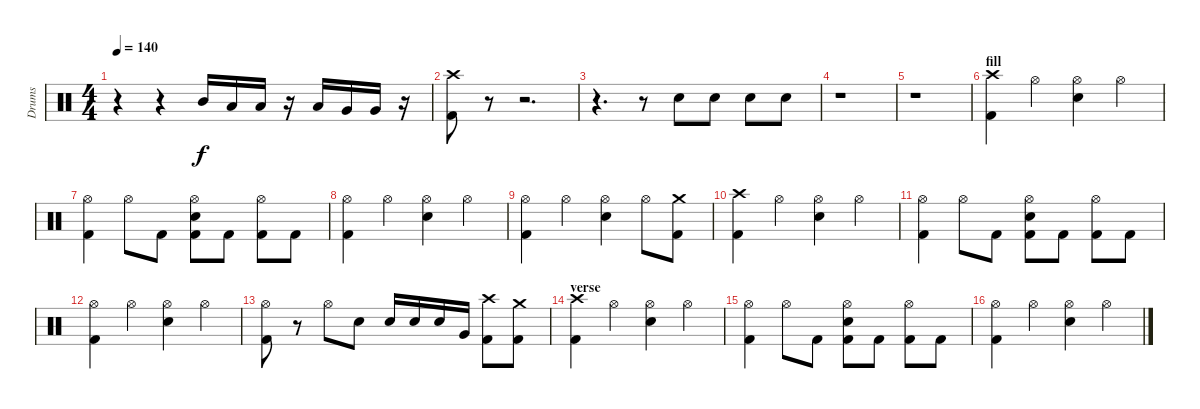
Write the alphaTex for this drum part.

\track ("Drums" "Drums") {instrument percussion}
\staff {score}
\articulation defaults
\ts (4 4)
\tempo 140
\clef neutral
\ks c
r.4{dy f} r.4 "Mid Tom (hit)".16 "Low Tom (hit)".16 "Low Tom (hit)".16 r.16 "Low Tom (hit)".16 "Very Low Tom (hit)".16 "Very Low Tom (hit)".16 r.16 |
("Crash high (hit)" "Kick (hit) 2").8 r.8 r.2{d} |
r.4{d} r.8 "Snare (hit) 2".8 "Snare (hit) 2".8 "Snare (hit) 2".8 "Snare (hit) 2".8 |
r.1 |
r.1 |
\section ("" "fill")
("Crash high (hit)" "Kick (hit) 2").4 "Hi-Hat (open)".4 ("Hi-Hat (open)" "Snare (hit) 2").4 "Hi-Hat (open)".4 |
("Hi-Hat (open)" "Kick (hit) 2").4 "Hi-Hat (open)".8 "Kick (hit) 2".8 ("Hi-Hat (open)" "Snare (hit) 2" "Kick (hit) 2").8 "Kick (hit) 2".8 ("Hi-Hat (open)" "Kick (hit) 2").8 "Kick (hit) 2".8 |
("Hi-Hat (open)" "Kick (hit) 2").4 "Hi-Hat (open)".4 ("Hi-Hat (open)" "Snare (hit) 2").4 "Hi-Hat (open)".4 |
("Hi-Hat (open)" "Kick (hit) 2").4 "Hi-Hat (open)".4 ("Hi-Hat (open)" "Snare (hit) 2").4 "Hi-Hat (open)".8 ("Crash medium (hit)" "Kick (hit) 2").8 |
("Crash high (hit)" "Kick (hit) 2").4 "Hi-Hat (open)".4 ("Hi-Hat (open)" "Snare (hit) 2").4 "Hi-Hat (open)".4 |
("Hi-Hat (open)" "Kick (hit) 2").4 "Hi-Hat (open)".8 "Kick (hit) 2".8 ("Hi-Hat (open)" "Snare (hit) 2" "Kick (hit) 2").8 "Kick (hit) 2".8 ("Hi-Hat (open)" "Kick (hit) 2").8 "Kick (hit) 2".8 |
("Hi-Hat (open)" "Kick (hit) 2").4 "Hi-Hat (open)".4 ("Hi-Hat (open)" "Snare (hit) 2").4 "Hi-Hat (open)".4 |
("Hi-Hat (open)" "Kick (hit) 2").8 r.8 "Hi-Hat (open)".8 "Snare (hit) 2".8 "Snare (hit) 2".16 "Snare (hit) 2".16 "Snare (hit) 2".16 "Very Low Tom (hit)".16 ("Crash high (hit)" "Kick (hit) 2").8 ("Crash medium (hit)" "Kick (hit) 2").8 |
\section ("" "verse")
("Crash high (hit)" "Kick (hit) 2").4 "Hi-Hat (open)".4 ("Hi-Hat (open)" "Snare (hit) 2").4 "Hi-Hat (open)".4 |
("Hi-Hat (open)" "Kick (hit) 2").4 "Hi-Hat (open)".8 "Kick (hit) 2".8 ("Hi-Hat (open)" "Snare (hit) 2" "Kick (hit) 2").8 "Kick (hit) 2".8 ("Hi-Hat (open)" "Kick (hit) 2").8 "Kick (hit) 2".8 |
("Hi-Hat (open)" "Kick (hit) 2").4 "Hi-Hat (open)".4 ("Hi-Hat (open)" "Snare (hit) 2").4 "Hi-Hat (open)".4
